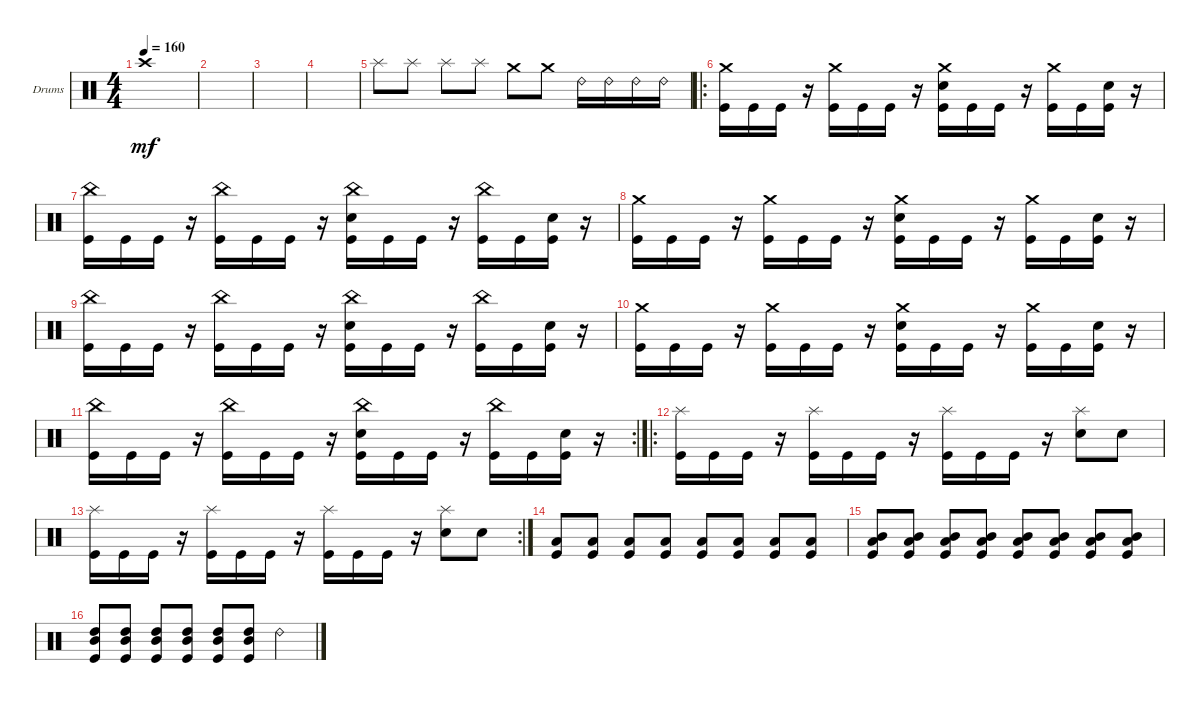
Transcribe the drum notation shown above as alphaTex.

\defaultSystemsLayout 4
\bracketExtendMode groupsimilarinstruments
\firstSystemTrackNameOrientation horizontal
\otherSystemsTrackNameOrientation horizontal
\track ("Drumkit" "Drums") {instrument percussion}
\staff {score}
\articulation defaults
\ts (4 4)
\tempo 160
\clef neutral
\ks c "Crash high (hit)".1{dy mf}
|
|
|
|
"Splash (hit)".8 "Splash (hit)".8 "Splash (hit)".8 "Splash (hit)".8 "Crash medium (hit)".8 "Crash medium (hit)".8 "Ride (bell) 2".16 "Ride (bell) 2".16 "Ride (bell) 2".16 "Ride (bell) 2".16 |
\ro
("Kick (hit)" "Crash medium (hit)").16 "Kick (hit)".16 "Kick (hit)".16 r.16 ("Kick (hit)" "Crash medium (hit)").16 "Kick (hit)".16 "Kick (hit)".16 r.16 ("Kick (hit)" "Crash medium (hit)" "Snare (hit) 2").16 "Kick (hit)".16 "Kick (hit)".16 r.16 ("Crash medium (hit)" "Kick (hit)").16 "Kick (hit)".16 ("Kick (hit)" "Snare (hit) 2").16 r.16 |
("China (hit)" "Kick (hit)").16 "Kick (hit)".16 "Kick (hit)".16 r.16 ("China (hit)" "Kick (hit)").16 "Kick (hit)".16 "Kick (hit)".16 r.16 ("China (hit)" "Kick (hit)" "Snare (hit) 2").16 "Kick (hit)".16 "Kick (hit)".16 r.16 ("China (hit)" "Kick (hit)").16 "Kick (hit)".16 ("Kick (hit)" "Snare (hit) 2").16 r.16 |
("Kick (hit)" "Crash medium (hit)").16 "Kick (hit)".16 "Kick (hit)".16 r.16 ("Kick (hit)" "Crash medium (hit)").16 "Kick (hit)".16 "Kick (hit)".16 r.16 ("Kick (hit)" "Crash medium (hit)" "Snare (hit) 2").16 "Kick (hit)".16 "Kick (hit)".16 r.16 ("Crash medium (hit)" "Kick (hit)").16 "Kick (hit)".16 ("Kick (hit)" "Snare (hit) 2").16 r.16 |
("China (hit)" "Kick (hit)").16 "Kick (hit)".16 "Kick (hit)".16 r.16 ("China (hit)" "Kick (hit)").16 "Kick (hit)".16 "Kick (hit)".16 r.16 ("China (hit)" "Kick (hit)" "Snare (hit) 2").16 "Kick (hit)".16 "Kick (hit)".16 r.16 ("China (hit)" "Kick (hit)").16 "Kick (hit)".16 ("Kick (hit)" "Snare (hit) 2").16 r.16 |
("Kick (hit)" "Crash medium (hit)").16 "Kick (hit)".16 "Kick (hit)".16 r.16 ("Kick (hit)" "Crash medium (hit)").16 "Kick (hit)".16 "Kick (hit)".16 r.16 ("Kick (hit)" "Crash medium (hit)" "Snare (hit) 2").16 "Kick (hit)".16 "Kick (hit)".16 r.16 ("Crash medium (hit)" "Kick (hit)").16 "Kick (hit)".16 ("Kick (hit)" "Snare (hit) 2").16 r.16 |
\rc 2
("China (hit)" "Kick (hit)").16 "Kick (hit)".16 "Kick (hit)".16 r.16 ("China (hit)" "Kick (hit)").16 "Kick (hit)".16 "Kick (hit)".16 r.16 ("China (hit)" "Kick (hit)" "Snare (hit) 2").16 "Kick (hit)".16 "Kick (hit)".16 r.16 ("China (hit)" "Kick (hit)").16 "Kick (hit)".16 ("Kick (hit)" "Snare (hit) 2").16 r.16 |
\ro
("Kick (hit)" "Splash (hit)").16 "Kick (hit)".16 "Kick (hit)".16 r.16 ("Kick (hit)" "Splash (hit)").16 "Kick (hit)".16 "Kick (hit)".16 r.16 ("Splash (hit)" "Kick (hit)").16 "Kick (hit)".16 "Kick (hit)".16 r.16 ("Snare (hit) 2" "Splash (hit)").8 "Snare (hit) 2".8 |
\rc 2
("Kick (hit)" "Splash (hit)").16 "Kick (hit)".16 "Kick (hit)".16 r.16 ("Kick (hit)" "Splash (hit)").16 "Kick (hit)".16 "Kick (hit)".16 r.16 ("Splash (hit)" "Kick (hit)").16 "Kick (hit)".16 "Kick (hit)".16 r.16 ("Snare (hit) 2" "Splash (hit)").8 "Snare (hit) 2".8 |
("Low Tom (hit)" "Kick (hit)").8 ("Low Tom (hit)" "Kick (hit)").8 ("Low Tom (hit)" "Kick (hit)").8 ("Low Tom (hit)" "Kick (hit)").8 ("Low Tom (hit)" "Kick (hit)").8 ("Low Tom (hit)" "Kick (hit)").8 ("Low Tom (hit)" "Kick (hit)").8 ("Low Tom (hit)" "Kick (hit)").8 |
("Mid Tom (hit)" "Low Tom (hit)" "Kick (hit)").8 ("Mid Tom (hit)" "Low Tom (hit)" "Kick (hit)").8 ("Mid Tom (hit)" "Low Tom (hit)" "Kick (hit)").8 ("Mid Tom (hit)" "Low Tom (hit)" "Kick (hit)").8 ("Mid Tom (hit)" "Low Tom (hit)" "Kick (hit)").8 ("Mid Tom (hit)" "Low Tom (hit)" "Kick (hit)").8 ("Mid Tom (hit)" "Low Tom (hit)" "Kick (hit)").8 ("Mid Tom (hit)" "Low Tom (hit)" "Kick (hit)").8 |
("High Tom (hit)" "Mid Tom (hit)" "Kick (hit)").8 ("High Tom (hit)" "Mid Tom (hit)" "Kick (hit)").8 ("High Tom (hit)" "Mid Tom (hit)" "Kick (hit)").8 ("High Tom (hit)" "Mid Tom (hit)" "Kick (hit)").8 ("High Tom (hit)" "Mid Tom (hit)" "Kick (hit)").8 ("High Tom (hit)" "Mid Tom (hit)" "Kick (hit)").8 "Ride (bell) 2".4
